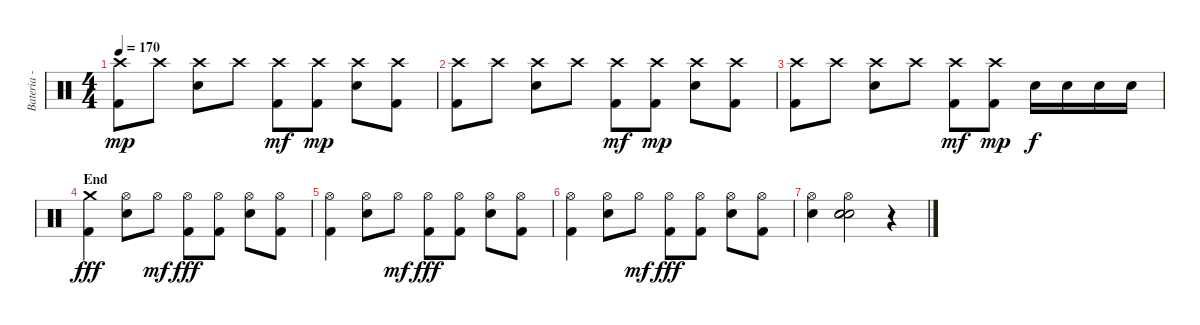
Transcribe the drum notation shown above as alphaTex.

\track ("Bateria - Larzon" "Bateria - ") {instrument percussion}
\staff {score}
\articulation defaults
\ts (4 4)
\tempo 170
\clef neutral
\ks c
("Kick (hit) 2" "Crash high (hit)").8{dy mp} "Crash high (hit)".8 ("Electric Snare (hit)" "Crash high (hit)").8 "Crash high (hit)".8 ("Kick (hit) 2" "Crash high (hit)").8{dy mf} ("Kick (hit) 2" "Crash high (hit)").8{dy mp} ("Electric Snare (hit)" "Crash high (hit)").8 ("Kick (hit) 2" "Crash high (hit)").8 |
("Kick (hit) 2" "Crash high (hit)").8 "Crash high (hit)".8 ("Electric Snare (hit)" "Crash high (hit)").8 "Crash high (hit)".8 ("Kick (hit) 2" "Crash high (hit)").8{dy mf} ("Kick (hit) 2" "Crash high (hit)").8{dy mp} ("Electric Snare (hit)" "Crash high (hit)").8 ("Kick (hit) 2" "Crash high (hit)").8 |
("Kick (hit) 2" "Crash high (hit)").8 "Crash high (hit)".8 ("Electric Snare (hit)" "Crash high (hit)").8 "Crash high (hit)".8 ("Kick (hit) 2" "Crash high (hit)").8{dy mf} ("Kick (hit) 2" "Crash high (hit)").8{dy mp} "Electric Snare (hit)".16{dy f} "Electric Snare (hit)".16 "Electric Snare (hit)".16 "Electric Snare (hit)".16 |
\section ("" "End")
("Crash medium (hit)" "Kick (hit) 2").4{dy fff} ("Hi-Hat (open)" "Snare (hit) 2").8 "Hi-Hat (open)".8{dy mf} ("Hi-Hat (open)" "Kick (hit) 2").8{dy fff} ("Hi-Hat (open)" "Kick (hit) 2").8 ("Hi-Hat (open)" "Snare (hit) 2").8 ("Hi-Hat (open)" "Kick (hit) 2").8 |
("Hi-Hat (open)" "Kick (hit) 2").4 ("Hi-Hat (open)" "Snare (hit) 2").8 "Hi-Hat (open)".8{dy mf} ("Hi-Hat (open)" "Kick (hit) 2").8{dy fff} ("Hi-Hat (open)" "Kick (hit) 2").8 ("Hi-Hat (open)" "Snare (hit) 2").8 ("Hi-Hat (open)" "Kick (hit) 2").8 |
("Hi-Hat (open)" "Kick (hit) 2").4 ("Hi-Hat (open)" "Snare (hit) 2").8 "Hi-Hat (open)".8{dy mf} ("Hi-Hat (open)" "Kick (hit) 2").8{dy fff} ("Hi-Hat (open)" "Kick (hit) 2").8 ("Hi-Hat (open)" "Snare (hit) 2").8 ("Hi-Hat (open)" "Kick (hit) 2").8 |
("Hi-Hat (open)" "Snare (hit) 2").4 ("Hi-Hat (open)" "Snare (hit) 2" "Snare (hit) 2" "Snare (hit) 2").2 r.4
